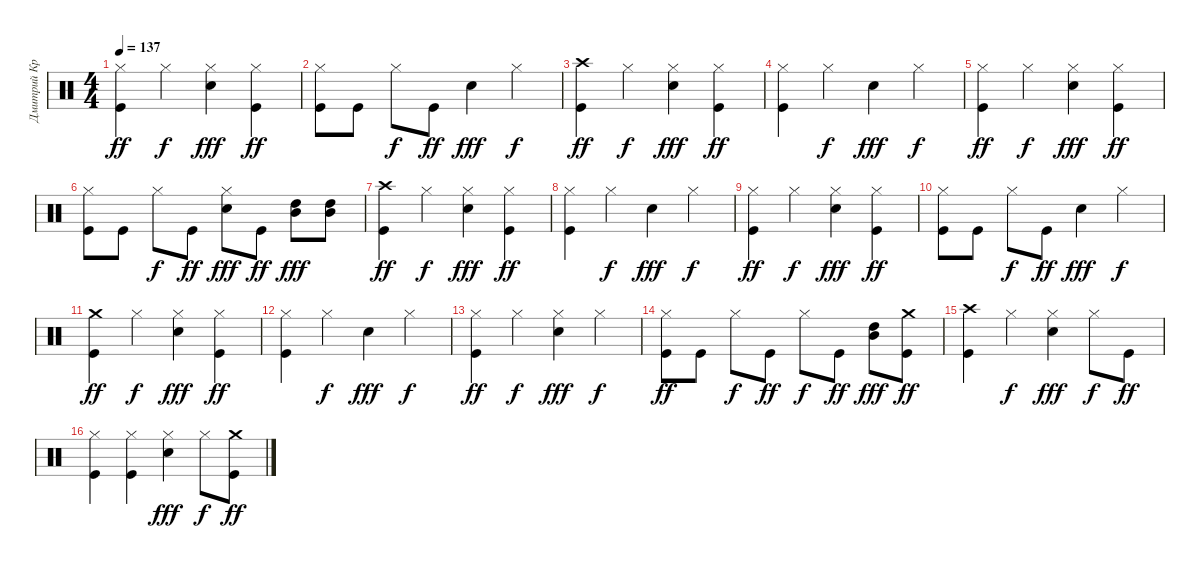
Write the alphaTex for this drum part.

\track ("Дмитрий Кревенков" "Дмитрий Кр") {instrument percussion}
\staff {score}
\articulation defaults
\ts (4 4)
\tempo 137
\clef neutral
\ks c
("Kick (hit)" "Hi-Hat (closed)").4{dy ff} "Hi-Hat (closed)".4{dy f} ("Snare (hit) 2" "Hi-Hat (closed)").4{dy fff} ("Kick (hit)" "Hi-Hat (closed)").4{dy ff} |
("Kick (hit)" "Hi-Hat (closed)").8 "Kick (hit)".8 "Hi-Hat (closed)".8{dy f} "Kick (hit)".8{dy ff} "Electric Snare (hit)".4{dy fff} "Hi-Hat (closed)".4{dy f} |
("Kick (hit)" "Crash high (hit)").4{dy ff} "Hi-Hat (closed)".4{dy f} ("Snare (hit) 2" "Hi-Hat (closed)").4{dy fff} ("Kick (hit)" "Hi-Hat (closed)").4{dy ff} |
("Kick (hit)" "Hi-Hat (closed)").4 "Hi-Hat (closed)".4{dy f} "Snare (hit) 2".4{dy fff} "Hi-Hat (closed)".4{dy f} |
("Hi-Hat (closed)" "Kick (hit)").4{dy ff} "Hi-Hat (closed)".4{dy f} ("Snare (hit) 2" "Hi-Hat (closed)").4{dy fff} ("Kick (hit)" "Hi-Hat (closed)").4{dy ff} |
("Kick (hit)" "Hi-Hat (closed)").8 "Kick (hit)".8 "Hi-Hat (closed)".8{dy f} "Kick (hit)".8{dy ff} ("Snare (hit) 2" "Hi-Hat (closed)").8{dy fff} "Kick (hit)".8{dy ff} ("Mid Tom (hit)" "High Tom (hit)").8{dy fff} ("High Tom (hit)" "Mid Tom (hit)").8 |
("Crash high (hit)" "Kick (hit)").4{dy ff} "Hi-Hat (closed)".4{dy f} ("Snare (hit) 2" "Hi-Hat (closed)").4{dy fff} ("Kick (hit)" "Hi-Hat (closed)").4{dy ff} |
("Kick (hit)" "Hi-Hat (closed)").4 "Hi-Hat (closed)".4{dy f} "Snare (hit) 2".4{dy fff} "Hi-Hat (closed)".4{dy f} |
("Hi-Hat (closed)" "Kick (hit)").4{dy ff} "Hi-Hat (closed)".4{dy f} ("Snare (hit) 2" "Hi-Hat (closed)").4{dy fff} ("Kick (hit)" "Hi-Hat (closed)").4{dy ff} |
("Kick (hit)" "Hi-Hat (closed)").8 "Kick (hit)".8 "Hi-Hat (closed)".8{dy f} "Kick (hit)".8{dy ff} "Snare (hit) 2".4{dy fff} "Hi-Hat (closed)".4{dy f} |
("Kick (hit)" "Crash medium (hit)").4{dy ff} "Hi-Hat (closed)".4{dy f} ("Snare (hit) 2" "Hi-Hat (closed)").4{dy fff} ("Kick (hit)" "Hi-Hat (closed)").4{dy ff} |
("Kick (hit)" "Hi-Hat (closed)").4 "Hi-Hat (closed)".4{dy f} "Snare (hit) 2".4{dy fff} "Hi-Hat (closed)".4{dy f} |
("Kick (hit)" "Hi-Hat (closed)").4{dy ff} "Hi-Hat (closed)".4{dy f} ("Snare (hit) 2" "Hi-Hat (closed)").4{dy fff} "Hi-Hat (closed)".4{dy f} |
("Kick (hit)" "Hi-Hat (closed)").8{dy ff} "Kick (hit)".8 "Hi-Hat (closed)".8{dy f} "Kick (hit)".8{dy ff} "Hi-Hat (closed)".8{dy f} "Kick (hit)".8{dy ff} ("High Tom (hit)" "Mid Tom (hit)").8{dy fff} ("Crash medium (hit)" "Kick (hit)").8{dy ff} |
("Kick (hit)" "Crash high (hit)").4 "Hi-Hat (closed)".4{dy f} ("Snare (hit) 2" "Hi-Hat (closed)").4{dy fff} "Hi-Hat (closed)".8{dy f} "Kick (hit)".8{dy ff} |
("Kick (hit)" "Hi-Hat (closed)").4 ("Kick (hit)" "Hi-Hat (closed)").4 ("Snare (hit) 2" "Hi-Hat (closed)").4{dy fff} "Hi-Hat (closed)".8{dy f} ("Crash medium (hit)" "Kick (hit)").8{dy ff}
